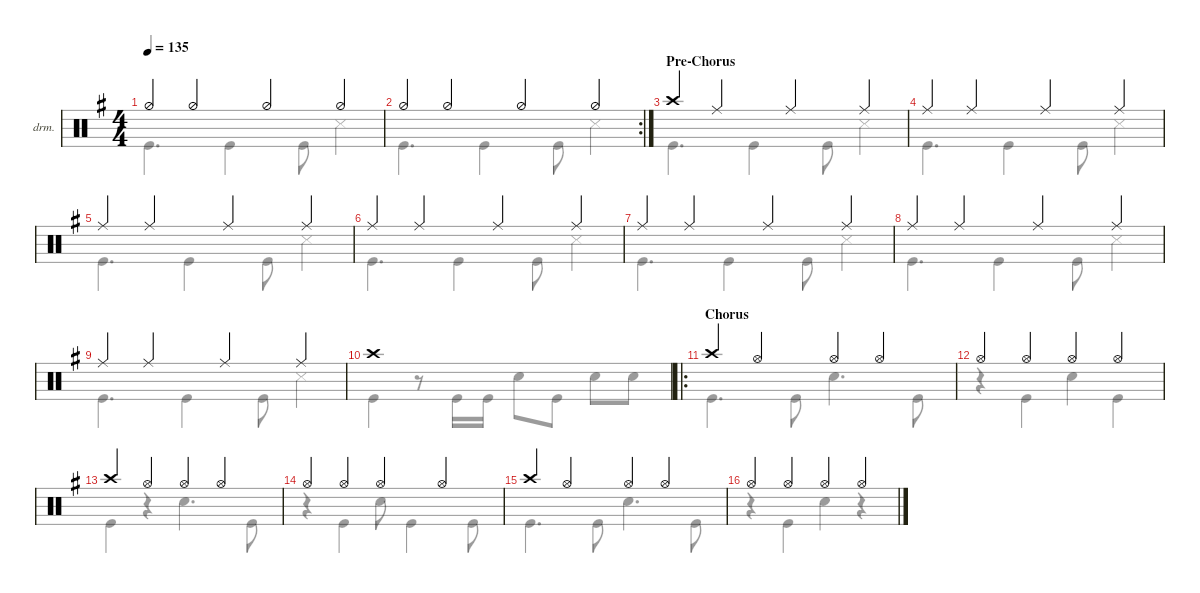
\defaultSystemsLayout 4
\hideDynamics
\bracketExtendMode nobrackets
\firstSystemTrackNameOrientation horizontal
\otherSystemsTrackNameOrientation horizontal
\track ("Drumkit" "drm.") {instrument percussion}
\staff {score}
\articulation defaults
\voice
\ts (4 4)
\tempo 135
\clef neutral
\ks eminor "Hi-Hat (half)".4{dy mp} "Hi-Hat (half)".4{dy p} "Hi-Hat (half)".4 "Hi-Hat (half)".4
|
\rc 2 "Hi-Hat (half)".4{dy mp} "Hi-Hat (half)".4{dy p} "Hi-Hat (half)".4 "Hi-Hat (half)".4
|
\section ("" "Pre-Chorus")
"Crash high (hit)".4{dy mp} "Ride (middle)".4 "Ride (middle)".4 "Ride (middle)".4 |
"Ride (middle)".4 "Ride (middle)".4 "Ride (middle)".4 "Ride (middle)".4 |
"Ride (middle)".4 "Ride (middle)".4 "Ride (middle)".4 "Ride (middle)".4 |
"Ride (middle)".4 "Ride (middle)".4 "Ride (middle)".4 "Ride (middle)".4 |
"Ride (middle)".4 "Ride (middle)".4 "Ride (middle)".4 "Ride (middle)".4 |
"Ride (middle)".4 "Ride (middle)".4 "Ride (middle)".4 "Ride (middle)".4 |
"Ride (middle)".4 "Ride (middle)".4 "Ride (middle)".4 "Ride (middle)".4 |
"Crash high (hit)".1 |
\ro
\section ("" "Chorus")
"Crash high (hit)".4{dy mf} "Hi-Hat (open)".4 "Hi-Hat (open)".4 "Hi-Hat (open)".4 |
"Hi-Hat (open)".4 "Hi-Hat (open)".4 "Hi-Hat (open)".4 "Hi-Hat (open)".4 |
"Crash high (hit)".4 "Hi-Hat (open)".4 "Hi-Hat (open)".4 "Hi-Hat (open)".4 |
"Hi-Hat (open)".4 "Hi-Hat (open)".4 "Hi-Hat (open)".4 "Hi-Hat (open)".4 |
"Crash high (hit)".4 "Hi-Hat (open)".4 "Hi-Hat (open)".4 "Hi-Hat (open)".4 |
"Hi-Hat (open)".4 "Hi-Hat (open)".4 "Hi-Hat (open)".4 "Hi-Hat (open)".4
\voice
\clef neutral
\ottava regular
\simile none
\ks eminor "Kick (hit)".4{d dy mf} "Kick (hit)".4{dy mp} "Kick (hit)".8 "Snare (side stick) 3".4{dy mf}
|
"Kick (hit)".4{d} "Kick (hit)".4{dy mp} "Kick (hit)".8 "Snare (side stick) 3".4{dy mf} |
"Kick (hit)".4{d} "Kick (hit)".4{dy mp} "Kick (hit)".8 "Snare (side stick) 3".4{dy mf} |
"Kick (hit)".4{d} "Kick (hit)".4{dy mp} "Kick (hit)".8 "Snare (side stick) 3".4{dy mf} |
"Kick (hit)".4{d} "Kick (hit)".4{dy mp} "Kick (hit)".8 "Snare (side stick) 3".4{dy mf} |
"Kick (hit)".4{d} "Kick (hit)".4{dy mp} "Kick (hit)".8 "Snare (side stick) 3".4{dy mf} |
"Kick (hit)".4{d} "Kick (hit)".4{dy mp} "Kick (hit)".8 "Snare (side stick) 3".4{dy mf} |
"Kick (hit)".4{d} "Kick (hit)".4{dy mp} "Kick (hit)".8 "Snare (side stick) 3".4{dy mf} |
"Kick (hit)".4{d} "Kick (hit)".4{dy mp} "Kick (hit)".8 "Snare (side stick) 3".4{dy mf} |
"Kick (hit)".4 r.8 "Kick (hit)".16 "Kick (hit)".16 "Snare (hit) 2".8 "Kick (hit)".8 "Snare (hit) 2".8 "Snare (hit) 2".8 |
"Kick (hit)".4{d dy f} "Kick (hit)".8 "Snare (hit) 2".4{d} "Kick (hit)".8{dy mf} |
r.4 "Kick (hit)".4 "Snare (hit) 2".4 "Kick (hit)".4 |
"Kick (hit)".4{dy f} r.4 "Snare (hit) 2".4{d} "Kick (hit)".8{dy mf} |
r.4 "Kick (hit)".4 "Snare (hit) 2".8 "Kick (hit)".4 "Kick (hit)".8 |
"Kick (hit)".4{d} "Kick (hit)".8 "Snare (hit) 2".4{d} "Kick (hit)".8 |
r.4 "Kick (hit)".4 "Snare (hit) 2".4 r.4
